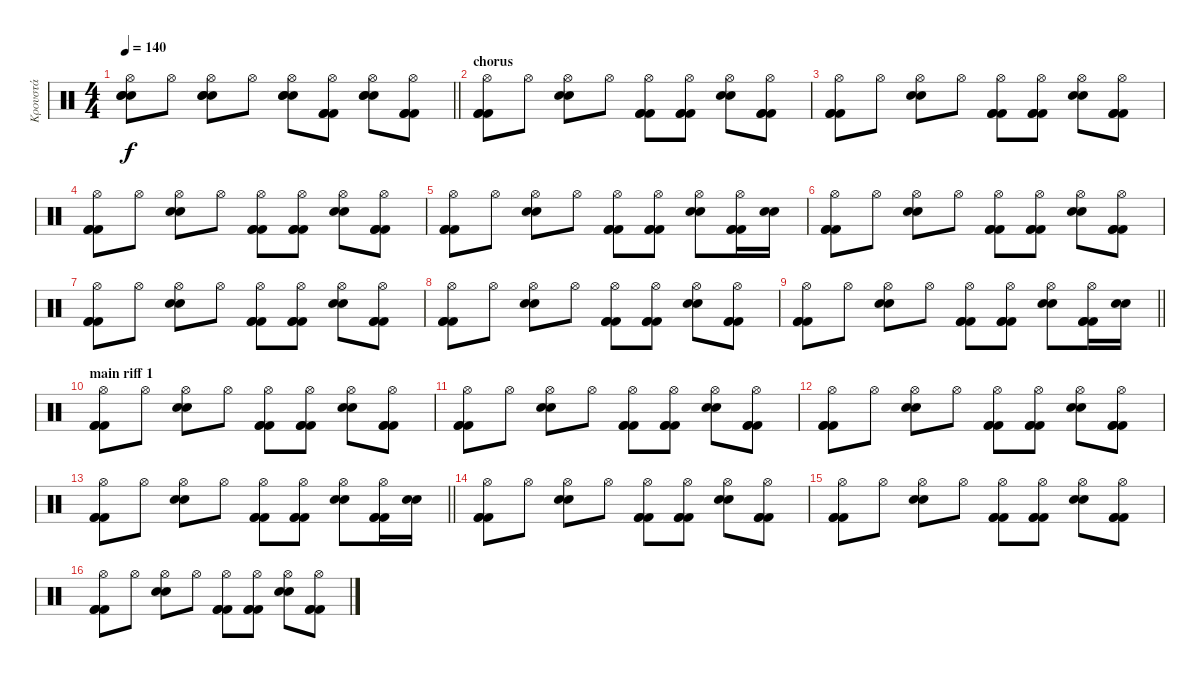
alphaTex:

\track ("Κρουστά" "Κρουστά") {instrument percussion}
\staff {score}
\articulation defaults
\ts (4 4)
\tempo 140
\clef neutral
\barLineRight lightlight
\ks c
("Electric Snare (hit)" "Electric Snare (hit)" "Electric Snare (hit)" "Hi-Hat (open)").8{dy f} "Hi-Hat (open)".8 ("Electric Snare (hit)" "Electric Snare (hit)" "Electric Snare (hit)" "Hi-Hat (open)").8 "Hi-Hat (open)".8 ("Electric Snare (hit)" "Electric Snare (hit)" "Electric Snare (hit)" "Hi-Hat (open)").8 ("Kick (hit) 2" "Kick (hit) 2" "Kick (hit) 2" "Hi-Hat (open)").8 ("Electric Snare (hit)" "Electric Snare (hit)" "Electric Snare (hit)" "Hi-Hat (open)").8 ("Kick (hit) 2" "Kick (hit) 2" "Kick (hit) 2" "Hi-Hat (open)").8 |
\section ("" "chorus")
("Kick (hit) 2" "Hi-Hat (open)" "Kick (hit) 2" "Kick (hit) 2").8 "Hi-Hat (open)".8 ("Electric Snare (hit)" "Hi-Hat (open)" "Electric Snare (hit)").8 "Hi-Hat (open)".8 ("Kick (hit) 2" "Kick (hit) 2" "Kick (hit) 2" "Hi-Hat (open)").8 ("Kick (hit) 2" "Kick (hit) 2" "Kick (hit) 2" "Hi-Hat (open)").8 ("Electric Snare (hit)" "Electric Snare (hit)" "Hi-Hat (open)").8 ("Kick (hit) 2" "Kick (hit) 2" "Kick (hit) 2" "Hi-Hat (open)").8 |
("Kick (hit) 2" "Hi-Hat (open)" "Kick (hit) 2" "Kick (hit) 2").8 "Hi-Hat (open)".8 ("Electric Snare (hit)" "Hi-Hat (open)" "Electric Snare (hit)").8 "Hi-Hat (open)".8 ("Kick (hit) 2" "Kick (hit) 2" "Kick (hit) 2" "Hi-Hat (open)").8 ("Kick (hit) 2" "Kick (hit) 2" "Kick (hit) 2" "Hi-Hat (open)").8 ("Electric Snare (hit)" "Electric Snare (hit)" "Hi-Hat (open)").8 ("Kick (hit) 2" "Kick (hit) 2" "Kick (hit) 2" "Hi-Hat (open)").8 |
("Kick (hit) 2" "Hi-Hat (open)" "Kick (hit) 2" "Kick (hit) 2").8 "Hi-Hat (open)".8 ("Electric Snare (hit)" "Hi-Hat (open)" "Electric Snare (hit)").8 "Hi-Hat (open)".8 ("Kick (hit) 2" "Kick (hit) 2" "Kick (hit) 2" "Hi-Hat (open)").8 ("Kick (hit) 2" "Kick (hit) 2" "Kick (hit) 2" "Hi-Hat (open)").8 ("Electric Snare (hit)" "Electric Snare (hit)" "Hi-Hat (open)").8 ("Kick (hit) 2" "Kick (hit) 2" "Kick (hit) 2" "Hi-Hat (open)").8 |
("Kick (hit) 2" "Hi-Hat (open)" "Kick (hit) 2" "Kick (hit) 2").8 "Hi-Hat (open)".8 ("Electric Snare (hit)" "Hi-Hat (open)" "Electric Snare (hit)").8 "Hi-Hat (open)".8 ("Kick (hit) 2" "Kick (hit) 2" "Kick (hit) 2" "Hi-Hat (open)").8 ("Kick (hit) 2" "Kick (hit) 2" "Kick (hit) 2" "Hi-Hat (open)").8 ("Electric Snare (hit)" "Electric Snare (hit)" "Hi-Hat (open)").8 ("Kick (hit) 2" "Kick (hit) 2" "Kick (hit) 2" "Hi-Hat (open)").16 ("Electric Snare (hit)" "Electric Snare (hit)").16 |
("Kick (hit) 2" "Hi-Hat (open)" "Kick (hit) 2" "Kick (hit) 2").8 "Hi-Hat (open)".8 ("Electric Snare (hit)" "Hi-Hat (open)" "Electric Snare (hit)").8 "Hi-Hat (open)".8 ("Kick (hit) 2" "Kick (hit) 2" "Kick (hit) 2" "Hi-Hat (open)").8 ("Kick (hit) 2" "Kick (hit) 2" "Kick (hit) 2" "Hi-Hat (open)").8 ("Electric Snare (hit)" "Electric Snare (hit)" "Hi-Hat (open)").8 ("Kick (hit) 2" "Kick (hit) 2" "Kick (hit) 2" "Hi-Hat (open)").8 |
("Kick (hit) 2" "Hi-Hat (open)" "Kick (hit) 2" "Kick (hit) 2").8 "Hi-Hat (open)".8 ("Electric Snare (hit)" "Hi-Hat (open)" "Electric Snare (hit)").8 "Hi-Hat (open)".8 ("Kick (hit) 2" "Kick (hit) 2" "Kick (hit) 2" "Hi-Hat (open)").8 ("Kick (hit) 2" "Kick (hit) 2" "Kick (hit) 2" "Hi-Hat (open)").8 ("Electric Snare (hit)" "Electric Snare (hit)" "Hi-Hat (open)").8 ("Kick (hit) 2" "Kick (hit) 2" "Kick (hit) 2" "Hi-Hat (open)").8 |
("Kick (hit) 2" "Hi-Hat (open)" "Kick (hit) 2" "Kick (hit) 2").8 "Hi-Hat (open)".8 ("Electric Snare (hit)" "Hi-Hat (open)" "Electric Snare (hit)").8 "Hi-Hat (open)".8 ("Kick (hit) 2" "Kick (hit) 2" "Kick (hit) 2" "Hi-Hat (open)").8 ("Kick (hit) 2" "Kick (hit) 2" "Kick (hit) 2" "Hi-Hat (open)").8 ("Electric Snare (hit)" "Electric Snare (hit)" "Hi-Hat (open)").8 ("Kick (hit) 2" "Kick (hit) 2" "Kick (hit) 2" "Hi-Hat (open)").8 |
\barLineRight lightlight
("Kick (hit) 2" "Hi-Hat (open)" "Kick (hit) 2" "Kick (hit) 2").8 "Hi-Hat (open)".8 ("Electric Snare (hit)" "Hi-Hat (open)" "Electric Snare (hit)").8 "Hi-Hat (open)".8 ("Kick (hit) 2" "Kick (hit) 2" "Kick (hit) 2" "Hi-Hat (open)").8 ("Kick (hit) 2" "Kick (hit) 2" "Kick (hit) 2" "Hi-Hat (open)").8 ("Electric Snare (hit)" "Electric Snare (hit)" "Hi-Hat (open)").8 ("Kick (hit) 2" "Kick (hit) 2" "Kick (hit) 2" "Hi-Hat (open)").16 ("Electric Snare (hit)" "Electric Snare (hit)").16 |
\section ("" "main riff 1")
("Kick (hit) 2" "Hi-Hat (open)" "Kick (hit) 2" "Kick (hit) 2").8 "Hi-Hat (open)".8 ("Electric Snare (hit)" "Hi-Hat (open)" "Electric Snare (hit)").8 "Hi-Hat (open)".8 ("Kick (hit) 2" "Kick (hit) 2" "Kick (hit) 2" "Hi-Hat (open)").8 ("Kick (hit) 2" "Kick (hit) 2" "Kick (hit) 2" "Hi-Hat (open)").8 ("Electric Snare (hit)" "Electric Snare (hit)" "Hi-Hat (open)").8 ("Kick (hit) 2" "Kick (hit) 2" "Kick (hit) 2" "Hi-Hat (open)").8 |
("Kick (hit) 2" "Hi-Hat (open)" "Kick (hit) 2" "Kick (hit) 2").8 "Hi-Hat (open)".8 ("Electric Snare (hit)" "Hi-Hat (open)" "Electric Snare (hit)").8 "Hi-Hat (open)".8 ("Kick (hit) 2" "Kick (hit) 2" "Kick (hit) 2" "Hi-Hat (open)").8 ("Kick (hit) 2" "Kick (hit) 2" "Kick (hit) 2" "Hi-Hat (open)").8 ("Electric Snare (hit)" "Electric Snare (hit)" "Hi-Hat (open)").8 ("Kick (hit) 2" "Kick (hit) 2" "Kick (hit) 2" "Hi-Hat (open)").8 |
("Kick (hit) 2" "Hi-Hat (open)" "Kick (hit) 2" "Kick (hit) 2").8 "Hi-Hat (open)".8 ("Electric Snare (hit)" "Hi-Hat (open)" "Electric Snare (hit)").8 "Hi-Hat (open)".8 ("Kick (hit) 2" "Kick (hit) 2" "Kick (hit) 2" "Hi-Hat (open)").8 ("Kick (hit) 2" "Kick (hit) 2" "Kick (hit) 2" "Hi-Hat (open)").8 ("Electric Snare (hit)" "Electric Snare (hit)" "Hi-Hat (open)").8 ("Kick (hit) 2" "Kick (hit) 2" "Kick (hit) 2" "Hi-Hat (open)").8 |
\barLineRight lightlight
("Kick (hit) 2" "Hi-Hat (open)" "Kick (hit) 2" "Kick (hit) 2").8 "Hi-Hat (open)".8 ("Electric Snare (hit)" "Hi-Hat (open)" "Electric Snare (hit)").8 "Hi-Hat (open)".8 ("Kick (hit) 2" "Kick (hit) 2" "Kick (hit) 2" "Hi-Hat (open)").8 ("Kick (hit) 2" "Kick (hit) 2" "Kick (hit) 2" "Hi-Hat (open)").8 ("Electric Snare (hit)" "Electric Snare (hit)" "Hi-Hat (open)").8 ("Kick (hit) 2" "Kick (hit) 2" "Kick (hit) 2" "Hi-Hat (open)").16 ("Electric Snare (hit)" "Electric Snare (hit)").16 |
("Kick (hit) 2" "Hi-Hat (open)" "Kick (hit) 2" "Kick (hit) 2").8 "Hi-Hat (open)".8 ("Electric Snare (hit)" "Hi-Hat (open)" "Electric Snare (hit)").8 "Hi-Hat (open)".8 ("Kick (hit) 2" "Kick (hit) 2" "Kick (hit) 2" "Hi-Hat (open)").8 ("Kick (hit) 2" "Kick (hit) 2" "Kick (hit) 2" "Hi-Hat (open)").8 ("Electric Snare (hit)" "Electric Snare (hit)" "Hi-Hat (open)").8 ("Kick (hit) 2" "Kick (hit) 2" "Kick (hit) 2" "Hi-Hat (open)").8 |
("Kick (hit) 2" "Hi-Hat (open)" "Kick (hit) 2" "Kick (hit) 2").8 "Hi-Hat (open)".8 ("Electric Snare (hit)" "Hi-Hat (open)" "Electric Snare (hit)").8 "Hi-Hat (open)".8 ("Kick (hit) 2" "Kick (hit) 2" "Kick (hit) 2" "Hi-Hat (open)").8 ("Kick (hit) 2" "Kick (hit) 2" "Kick (hit) 2" "Hi-Hat (open)").8 ("Electric Snare (hit)" "Electric Snare (hit)" "Hi-Hat (open)").8 ("Kick (hit) 2" "Kick (hit) 2" "Kick (hit) 2" "Hi-Hat (open)").8 |
("Kick (hit) 2" "Hi-Hat (open)" "Kick (hit) 2" "Kick (hit) 2").8 "Hi-Hat (open)".8 ("Electric Snare (hit)" "Hi-Hat (open)" "Electric Snare (hit)").8 "Hi-Hat (open)".8 ("Kick (hit) 2" "Kick (hit) 2" "Kick (hit) 2" "Hi-Hat (open)").8 ("Kick (hit) 2" "Kick (hit) 2" "Kick (hit) 2" "Hi-Hat (open)").8 ("Electric Snare (hit)" "Electric Snare (hit)" "Hi-Hat (open)").8 ("Kick (hit) 2" "Kick (hit) 2" "Kick (hit) 2" "Hi-Hat (open)").8
